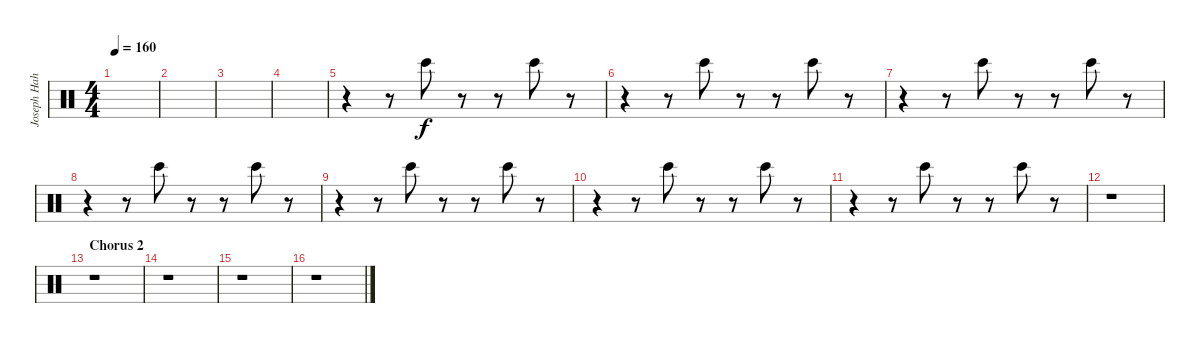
\track ("Joseph Hahn (Sampler 3)" "Joseph Hah") {instrument percussion}
\staff {score}
\articulation defaults
\ts (4 4)
\tempo 160
\clef neutral
\ks c
|
|
|
|
r.4 r.8 "Bongo High (hit)".8 r.8 r.8 "Bongo High (hit)".8 r.8 |
r.4 r.8 "Bongo High (hit)".8 r.8 r.8 "Bongo High (hit)".8 r.8 |
r.4 r.8 "Bongo High (hit)".8 r.8 r.8 "Bongo High (hit)".8 r.8 |
r.4 r.8 "Bongo High (hit)".8 r.8 r.8 "Bongo High (hit)".8 r.8 |
r.4 r.8 "Bongo High (hit)".8 r.8 r.8 "Bongo High (hit)".8 r.8 |
r.4 r.8 "Bongo High (hit)".8 r.8 r.8 "Bongo High (hit)".8 r.8 |
r.4 r.8 "Bongo High (hit)".8 r.8 r.8 "Bongo High (hit)".8 r.8 |
r.1 |
\section ("" "Chorus 2")
r.1 |
r.1 |
r.1 |
r.1
